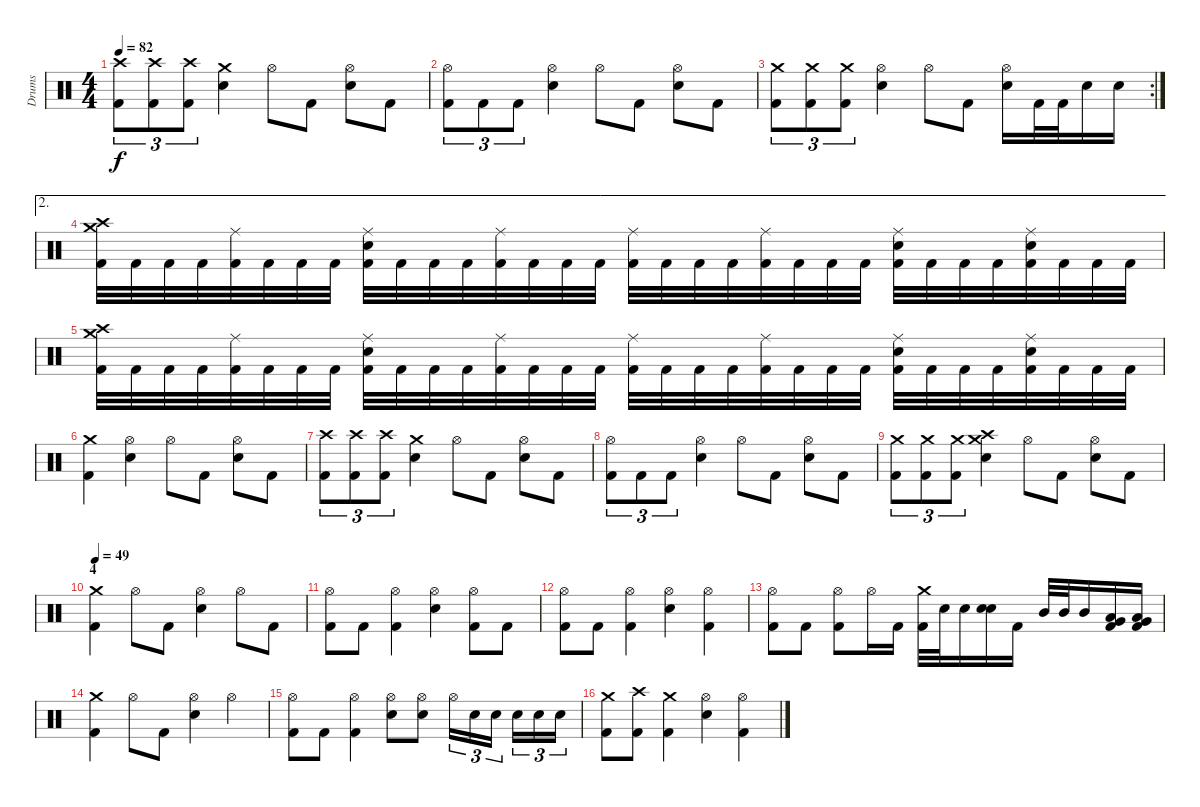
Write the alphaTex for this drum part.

\track ("Drums" "Drums") {instrument percussion}
\staff {score}
\articulation defaults
\ts (4 4)
\tempo 82
\clef neutral
\ks c
("Crash high (hit)" "Kick (hit) 2").8{tu (3 2) dy f} ("Crash high (hit)" "Kick (hit) 2").8{tu (3 2)} ("Crash high (hit)" "Kick (hit) 2").8{tu (3 2)} ("Crash medium (hit)" "Electric Snare (hit)").4 "Hi-Hat (open)".8 "Kick (hit) 2".8 ("Hi-Hat (open)" "Electric Snare (hit)").8 "Kick (hit) 2".8 |
("Hi-Hat (open)" "Kick (hit) 2").8{tu (3 2)} "Kick (hit) 2".8{tu (3 2)} "Kick (hit) 2".8{tu (3 2)} ("Hi-Hat (open)" "Electric Snare (hit)").4 "Hi-Hat (open)".8 "Kick (hit) 2".8 ("Hi-Hat (open)" "Electric Snare (hit)").8 "Kick (hit) 2".8 |
\rc 2
("Crash medium (hit)" "Kick (hit) 2").8{tu (3 2)} ("Crash medium (hit)" "Kick (hit) 2").8{tu (3 2)} ("Crash medium (hit)" "Kick (hit) 2").8{tu (3 2)} ("Electric Snare (hit)" "Hi-Hat (open)").4 "Hi-Hat (open)".8 "Kick (hit) 2".8 ("Electric Snare (hit)" "Hi-Hat (open)").16 "Kick (hit) 2".32 "Kick (hit) 2".32 "Electric Snare (hit)".16 "Electric Snare (hit)".16 |
\ae 2
("Crash medium (hit)" "Crash high (hit)" "Kick (hit) 2").32 "Kick (hit) 2".32 "Kick (hit) 2".32 "Kick (hit) 2".32 ("Ride (middle)" "Kick (hit) 2").32 "Kick (hit) 2".32 "Kick (hit) 2".32 "Kick (hit) 2".32 ("Ride (middle)" "Electric Snare (hit)" "Kick (hit) 2").32 "Kick (hit) 2".32 "Kick (hit) 2".32 "Kick (hit) 2".32 ("Ride (middle)" "Kick (hit) 2").32 "Kick (hit) 2".32 "Kick (hit) 2".32 "Kick (hit) 2".32 ("Ride (middle)" "Kick (hit) 2").32 "Kick (hit) 2".32 "Kick (hit) 2".32 "Kick (hit) 2".32 ("Ride (middle)" "Kick (hit) 2").32 "Kick (hit) 2".32 "Kick (hit) 2".32 "Kick (hit) 2".32 ("Ride (middle)" "Electric Snare (hit)" "Kick (hit) 2").32 "Kick (hit) 2".32 "Kick (hit) 2".32 "Kick (hit) 2".32 ("Ride (middle)" "Electric Snare (hit)" "Kick (hit) 2").32 "Kick (hit) 2".32 "Kick (hit) 2".32 "Kick (hit) 2".32 |
("Crash medium (hit)" "Crash high (hit)" "Kick (hit) 2").32 "Kick (hit) 2".32 "Kick (hit) 2".32 "Kick (hit) 2".32 ("Ride (middle)" "Kick (hit) 2").32 "Kick (hit) 2".32 "Kick (hit) 2".32 "Kick (hit) 2".32 ("Ride (middle)" "Electric Snare (hit)" "Kick (hit) 2").32 "Kick (hit) 2".32 "Kick (hit) 2".32 "Kick (hit) 2".32 ("Ride (middle)" "Kick (hit) 2").32 "Kick (hit) 2".32 "Kick (hit) 2".32 "Kick (hit) 2".32 ("Ride (middle)" "Kick (hit) 2").32 "Kick (hit) 2".32 "Kick (hit) 2".32 "Kick (hit) 2".32 ("Ride (middle)" "Kick (hit) 2").32 "Kick (hit) 2".32 "Kick (hit) 2".32 "Kick (hit) 2".32 ("Ride (middle)" "Electric Snare (hit)" "Kick (hit) 2").32 "Kick (hit) 2".32 "Kick (hit) 2".32 "Kick (hit) 2".32 ("Ride (middle)" "Electric Snare (hit)" "Kick (hit) 2").32 "Kick (hit) 2".32 "Kick (hit) 2".32 "Kick (hit) 2".32 |
("Crash medium (hit)" "Kick (hit) 2").4 ("Hi-Hat (open)" "Electric Snare (hit)").4 "Hi-Hat (open)".8 "Kick (hit) 2".8 ("Hi-Hat (open)" "Electric Snare (hit)").8 "Kick (hit) 2".8 |
("Crash high (hit)" "Kick (hit) 2").8{tu (3 2)} ("Crash high (hit)" "Kick (hit) 2").8{tu (3 2)} ("Crash high (hit)" "Kick (hit) 2").8{tu (3 2)} ("Crash medium (hit)" "Electric Snare (hit)").4 "Hi-Hat (open)".8 "Kick (hit) 2".8 ("Hi-Hat (open)" "Electric Snare (hit)").8 "Kick (hit) 2".8 |
("Hi-Hat (open)" "Kick (hit) 2").8{tu (3 2)} "Kick (hit) 2".8{tu (3 2)} "Kick (hit) 2".8{tu (3 2)} ("Hi-Hat (open)" "Electric Snare (hit)").4 "Hi-Hat (open)".8 "Kick (hit) 2".8 ("Hi-Hat (open)" "Electric Snare (hit)").8 "Kick (hit) 2".8 |
("Crash medium (hit)" "Kick (hit) 2").8{tu (3 2)} ("Crash medium (hit)" "Kick (hit) 2").8{tu (3 2)} ("Crash medium (hit)" "Kick (hit) 2").8{tu (3 2)} ("Crash high (hit)" "Crash medium (hit)" "Electric Snare (hit)").4 "Hi-Hat (open)".8 "Kick (hit) 2".8 ("Electric Snare (hit)" "Hi-Hat (open)").8 "Kick (hit) 2".8 |
\section ("" "4")
\tempo 49
("Crash medium (hit)" "Kick (hit) 2").4 "Hi-Hat (open)".8 "Kick (hit) 2".8 ("Hi-Hat (open)" "Electric Snare (hit)").4 "Hi-Hat (open)".8 "Kick (hit) 2".8 |
("Hi-Hat (open)" "Kick (hit) 2").8 "Kick (hit) 2".8 ("Hi-Hat (open)" "Kick (hit) 2").4 ("Hi-Hat (open)" "Electric Snare (hit)").4 ("Hi-Hat (open)" "Kick (hit) 2").8 "Kick (hit) 2".8 |
("Hi-Hat (open)" "Kick (hit) 2").8 "Kick (hit) 2".8 ("Hi-Hat (open)" "Kick (hit) 2").4 ("Hi-Hat (open)" "Electric Snare (hit)").4 ("Hi-Hat (open)" "Kick (hit) 2").4 |
("Hi-Hat (open)" "Kick (hit) 2").8 "Kick (hit) 2".8 ("Hi-Hat (open)" "Kick (hit) 2").8 "Hi-Hat (open)".16 "Kick (hit) 2".16 ("Crash medium (hit)" "Kick (hit) 2").32 "Electric Snare (hit)".32 "Electric Snare (hit)".16 ("Electric Snare (hit)" "Electric Snare (hit)").16{bu 60} "Kick (hit) 2".16 "Mid Tom (hit)".32 "Mid Tom (hit)".32 "Mid Tom (hit)".16 ("Low Tom (hit)" "Very Low Tom (hit)" "Kick (hit) 2").16 ("Very Low Tom (hit)" "Low Floor Tom (hit)" "Kick (hit) 2").16 |
("Crash medium (hit)" "Kick (hit) 2").4 "Hi-Hat (open)".8 "Kick (hit) 2".8 ("Hi-Hat (open)" "Electric Snare (hit)").4 "Hi-Hat (open)".4 |
("Hi-Hat (open)" "Kick (hit) 2").8 "Kick (hit) 2".8 ("Hi-Hat (open)" "Kick (hit) 2").4 ("Hi-Hat (open)" "Electric Snare (hit)").8 ("Hi-Hat (open)" "Electric Snare (hit)").8 "Hi-Hat (open)".16{tu (3 2)} "Electric Snare (hit)".16{tu (3 2)} "Electric Snare (hit)".16{tu (3 2)} "Electric Snare (hit)".16{tu (3 2)} "Electric Snare (hit)".16{tu (3 2)} "Electric Snare (hit)".16{tu (3 2)} |
("Crash medium (hit)" "Kick (hit) 2").8 ("Crash high (hit)" "Kick (hit) 2").8 ("Crash medium (hit)" "Kick (hit) 2").4 ("Hi-Hat (open)" "Electric Snare (hit)").4 ("Hi-Hat (open)" "Kick (hit) 2").4
